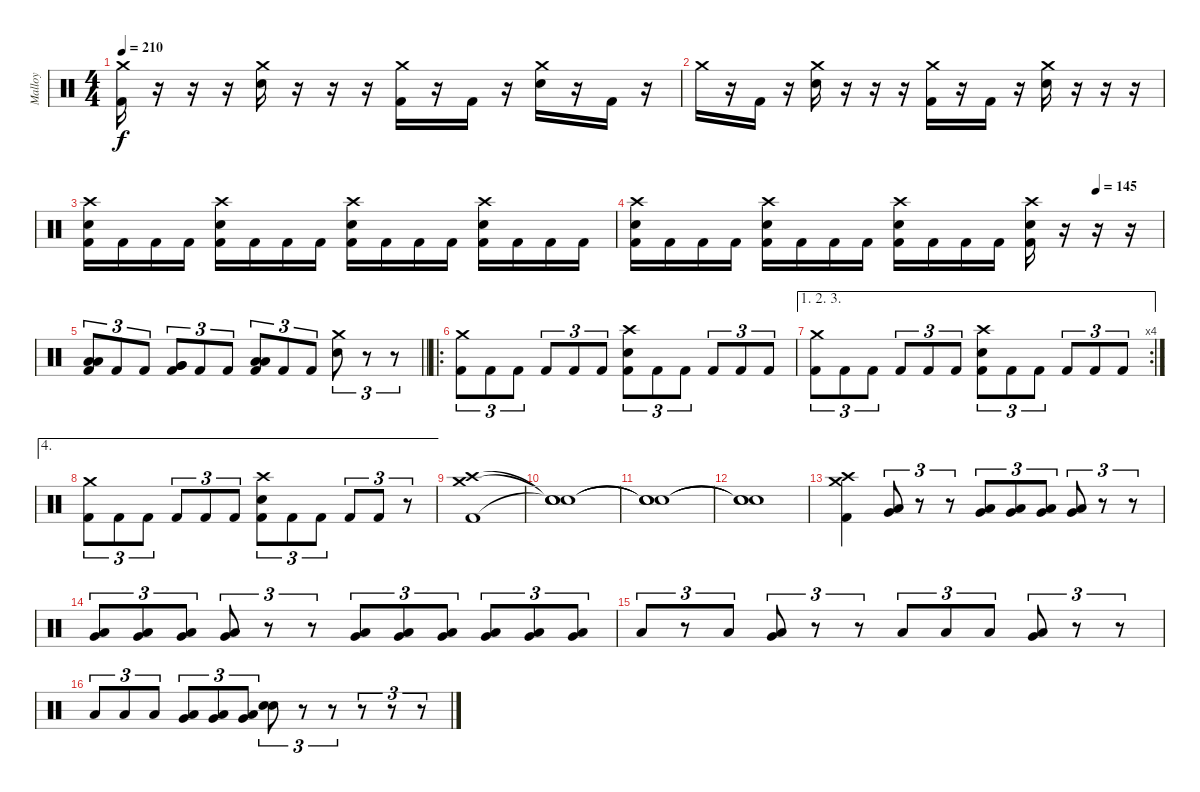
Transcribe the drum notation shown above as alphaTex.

\track ("Malloy" "Malloy") {instrument percussion}
\staff {score}
\articulation defaults
\ts (4 4)
\tempo 210
\clef neutral
\ks c
("Kick (hit) 2" "Crash medium (hit)").16{dy f} r.16 r.16 r.16 ("Electric Snare (hit)" "Crash medium (hit)").16 r.16 r.16 r.16 ("Kick (hit) 2" "Crash medium (hit)").16 r.16 "Kick (hit) 2".16 r.16 ("Electric Snare (hit)" "Crash medium (hit)").16 r.16 "Kick (hit) 2".16 r.16 |
"Crash medium (hit)".16 r.16 "Kick (hit) 2".16 r.16 ("Electric Snare (hit)" "Crash medium (hit)").16 r.16 r.16 r.16 ("Kick (hit) 2" "Crash medium (hit)").16 r.16 "Kick (hit) 2".16 r.16 ("Electric Snare (hit)" "Crash medium (hit)").16 r.16 r.16 r.16 |
("Kick (hit) 2" "Electric Snare (hit)" "Crash high (hit)").16 "Kick (hit) 2".16 "Kick (hit) 2".16 "Kick (hit) 2".16 ("Kick (hit) 2" "Electric Snare (hit)" "Crash high (hit)").16 "Kick (hit) 2".16 "Kick (hit) 2".16 "Kick (hit) 2".16 ("Kick (hit) 2" "Electric Snare (hit)" "Crash high (hit)").16 "Kick (hit) 2".16 "Kick (hit) 2".16 "Kick (hit) 2".16 ("Kick (hit) 2" "Electric Snare (hit)" "Crash high (hit)").16 "Kick (hit) 2".16 "Kick (hit) 2".16 "Kick (hit) 2".16 |
\tempo (145 0.875)
("Kick (hit) 2" "Electric Snare (hit)" "Crash high (hit)").16 "Kick (hit) 2".16 "Kick (hit) 2".16 "Kick (hit) 2".16 ("Kick (hit) 2" "Electric Snare (hit)" "Crash high (hit)").16 "Kick (hit) 2".16 "Kick (hit) 2".16 "Kick (hit) 2".16 ("Kick (hit) 2" "Electric Snare (hit)" "Crash high (hit)").16 "Kick (hit) 2".16 "Kick (hit) 2".16 "Kick (hit) 2".16 ("Kick (hit) 2" "Electric Snare (hit)" "Crash high (hit)").16 r.16 r.16 r.16 |
\barLineRight lightlight
("Kick (hit) 2" "Low Tom (hit)" "Low Tom (hit)").8{tu (3 2)} "Kick (hit) 2".8{tu (3 2)} "Kick (hit) 2".8{tu (3 2)} ("Kick (hit) 2" "Very Low Tom (hit)" "Very Low Tom (hit)").8{tu (3 2)} "Kick (hit) 2".8{tu (3 2)} "Kick (hit) 2".8{tu (3 2)} ("Kick (hit) 2" "Low Floor Tom (hit)" "Low Floor Tom (hit)").8{tu (3 2)} "Kick (hit) 2".8{tu (3 2)} "Kick (hit) 2".8{tu (3 2)} ("Electric Snare (hit)" "Crash medium (hit)").8{tu (3 2)} r.8{tu (3 2)} r.8{tu (3 2)} |
\ro
("Kick (hit) 2" "Crash medium (hit)").8{tu (3 2)} "Kick (hit) 2".8{tu (3 2)} "Kick (hit) 2".8{tu (3 2)} "Kick (hit) 2".8{tu (3 2)} "Kick (hit) 2".8{tu (3 2)} "Kick (hit) 2".8{tu (3 2)} ("Kick (hit) 2" "Electric Snare (hit)" "Crash high (hit)").8{tu (3 2)} "Kick (hit) 2".8{tu (3 2)} "Kick (hit) 2".8{tu (3 2)} "Kick (hit) 2".8{tu (3 2)} "Kick (hit) 2".8{tu (3 2)} "Kick (hit) 2".8{tu (3 2)} |
\ae (1 2 3)
\rc 4
("Kick (hit) 2" "Crash medium (hit)").8{tu (3 2)} "Kick (hit) 2".8{tu (3 2)} "Kick (hit) 2".8{tu (3 2)} "Kick (hit) 2".8{tu (3 2)} "Kick (hit) 2".8{tu (3 2)} "Kick (hit) 2".8{tu (3 2)} ("Kick (hit) 2" "Electric Snare (hit)" "Crash high (hit)").8{tu (3 2)} "Kick (hit) 2".8{tu (3 2)} "Kick (hit) 2".8{tu (3 2)} "Kick (hit) 2".8{tu (3 2)} "Kick (hit) 2".8{tu (3 2)} "Kick (hit) 2".8{tu (3 2)} |
\ae 4
("Kick (hit) 2" "Crash medium (hit)").8{tu (3 2)} "Kick (hit) 2".8{tu (3 2)} "Kick (hit) 2".8{tu (3 2)} "Kick (hit) 2".8{tu (3 2)} "Kick (hit) 2".8{tu (3 2)} "Kick (hit) 2".8{tu (3 2)} ("Kick (hit) 2" "Electric Snare (hit)" "Crash high (hit)").8{tu (3 2)} "Kick (hit) 2".8{tu (3 2)} "Kick (hit) 2".8{tu (3 2)} "Kick (hit) 2".8{tu (3 2)} "Kick (hit) 2".8{tu (3 2)} r.8{tu (3 2)} |
("Kick (hit) 2" "Crash medium (hit)" "Crash high (hit)").1 |
("Snare (hit)"{t} "Snare (hit)"{t} "Snare (hit)"{t}).1 |
("Snare (hit)"{t} "Snare (hit)"{t} "Snare (hit)"{t}).1 |
("Snare (hit)"{t} "Snare (hit)"{t} "Snare (hit)"{t}).1 |
("Kick (hit) 2" "Crash medium (hit)" "Crash high (hit)").4 ("Very Low Tom (hit)" "Low Floor Tom (hit)").8{tu (3 2)} r.8{tu (3 2)} r.8{tu (3 2)} ("Very Low Tom (hit)" "Low Floor Tom (hit)").8{tu (3 2)} ("Very Low Tom (hit)" "Low Floor Tom (hit)").8{tu (3 2)} ("Very Low Tom (hit)" "Low Floor Tom (hit)").8{tu (3 2)} ("Very Low Tom (hit)" "Low Floor Tom (hit)").8{tu (3 2)} r.8{tu (3 2)} r.8{tu (3 2)} |
("Very Low Tom (hit)" "Low Floor Tom (hit)").8{tu (3 2)} ("Very Low Tom (hit)" "Low Floor Tom (hit)").8{tu (3 2)} ("Very Low Tom (hit)" "Low Floor Tom (hit)").8{tu (3 2)} ("Very Low Tom (hit)" "Low Floor Tom (hit)").8{tu (3 2)} r.8{tu (3 2)} r.8{tu (3 2)} ("Very Low Tom (hit)" "Low Floor Tom (hit)").8{tu (3 2)} ("Very Low Tom (hit)" "Low Floor Tom (hit)").8{tu (3 2)} ("Very Low Tom (hit)" "Low Floor Tom (hit)").8{tu (3 2)} ("Very Low Tom (hit)" "Low Floor Tom (hit)").8{tu (3 2)} ("Very Low Tom (hit)" "Low Floor Tom (hit)").8{tu (3 2)} ("Very Low Tom (hit)" "Low Floor Tom (hit)").8{tu (3 2)} |
"Low Floor Tom (hit)".8{tu (3 2)} r.8{tu (3 2)} "Low Floor Tom (hit)".8{tu (3 2)} ("Low Floor Tom (hit)" "Very Low Tom (hit)").8{tu (3 2)} r.8{tu (3 2)} r.8{tu (3 2)} "Low Floor Tom (hit)".8{tu (3 2)} "Low Floor Tom (hit)".8{tu (3 2)} "Low Floor Tom (hit)".8{tu (3 2)} ("Low Floor Tom (hit)" "Very Low Tom (hit)").8{tu (3 2)} r.8{tu (3 2)} r.8{tu (3 2)} |
"Low Floor Tom (hit)".8{tu (3 2)} "Low Floor Tom (hit)".8{tu (3 2)} "Low Floor Tom (hit)".8{tu (3 2)} ("Low Floor Tom (hit)" "Very Low Tom (hit)").8{tu (3 2)} ("Low Floor Tom (hit)" "Very Low Tom (hit)").8{tu (3 2)} ("Low Floor Tom (hit)" "Very Low Tom (hit)").8{tu (3 2)} ("Electric Snare (hit)" "Electric Snare (hit)").8{tu (3 2)} r.8{tu (3 2)} r.8{tu (3 2)} r.8{tu (3 2)} r.8{tu (3 2)} r.8{tu (3 2)}
